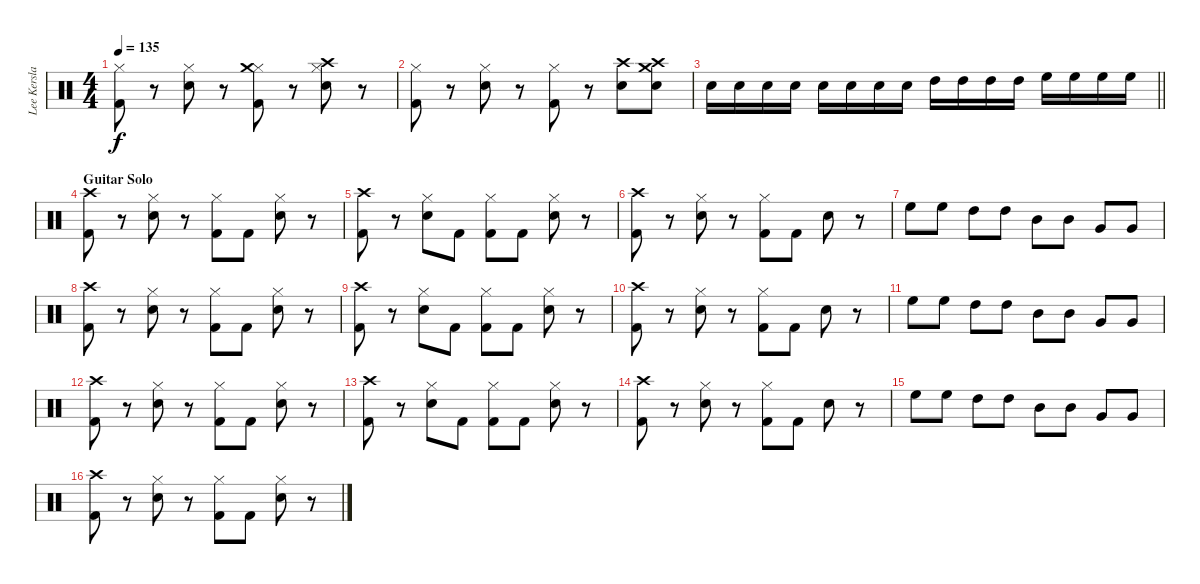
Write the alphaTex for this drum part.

\track ("Lee Kerslake" "Lee Kersla") {instrument percussion}
\staff {score}
\articulation defaults
\ts (4 4)
\tempo 135
\clef neutral
\ks c
("Hi-Hat (closed)" "Kick (hit) 2").8{dy f} r.8 ("Hi-Hat (closed)" "Snare (hit) 2").8 r.8 ("Hi-Hat (closed)" "Kick (hit) 2" "Crash medium (hit)").8 r.8 ("Hi-Hat (closed)" "Snare (hit) 2" "Crash high (hit)").8 r.8 |
("Hi-Hat (closed)" "Kick (hit) 2").8 r.8 ("Hi-Hat (closed)" "Snare (hit) 2").8 r.8 ("Hi-Hat (closed)" "Kick (hit) 2").8 r.8 ("Snare (hit) 2" "Crash high (hit)").8 ("Snare (hit) 2" "Crash medium (hit)" "Crash high (hit)").8 |
\barLineRight lightlight "Electric Snare (hit)".16 "Electric Snare (hit)".16 "Electric Snare (hit)".16 "Electric Snare (hit)".16 "Snare (hit) 2".16 "Snare (hit) 2".16 "Snare (hit) 2".16 "Snare (hit) 2".16 "High Tom (hit)".16 "High Tom (hit)".16 "High Tom (hit)".16 "High Tom (hit)".16 "High Floor Tom (hit)".16 "High Floor Tom (hit)".16 "High Floor Tom (hit)".16 "High Floor Tom (hit)".16
|
\section ("" "Guitar Solo")
("Crash high (hit)" "Kick (hit) 2").8 r.8 ("Hi-Hat (closed)" "Snare (hit) 2").8 r.8 ("Hi-Hat (closed)" "Kick (hit) 2").8 "Kick (hit) 2".8 ("Hi-Hat (closed)" "Snare (hit) 2").8 r.8 |
("Kick (hit) 2" "Crash high (hit)").8 r.8 ("Hi-Hat (closed)" "Snare (hit) 2").8 "Kick (hit) 2".8 ("Hi-Hat (closed)" "Kick (hit) 2").8 "Kick (hit) 2".8 ("Hi-Hat (closed)" "Snare (hit) 2").8 r.8 |
("Kick (hit) 2" "Crash high (hit)").8 r.8 ("Hi-Hat (closed)" "Snare (hit) 2").8 r.8 ("Hi-Hat (closed)" "Kick (hit) 2").8 "Kick (hit) 2".8 "Snare (hit) 2".8 r.8 |
"High Floor Tom (hit)".8 "High Floor Tom (hit)".8 "High Tom (hit)".8 "High Tom (hit)".8 "Mid Tom (hit)".8 "Mid Tom (hit)".8 "Very Low Tom (hit)".8 "Very Low Tom (hit)".8 |
("Crash high (hit)" "Kick (hit) 2").8 r.8 ("Hi-Hat (closed)" "Snare (hit) 2").8 r.8 ("Hi-Hat (closed)" "Kick (hit) 2").8 "Kick (hit) 2".8 ("Hi-Hat (closed)" "Snare (hit) 2").8 r.8 |
("Kick (hit) 2" "Crash high (hit)").8 r.8 ("Hi-Hat (closed)" "Snare (hit) 2").8 "Kick (hit) 2".8 ("Hi-Hat (closed)" "Kick (hit) 2").8 "Kick (hit) 2".8 ("Hi-Hat (closed)" "Snare (hit) 2").8 r.8 |
("Kick (hit) 2" "Crash high (hit)").8 r.8 ("Hi-Hat (closed)" "Snare (hit) 2").8 r.8 ("Hi-Hat (closed)" "Kick (hit) 2").8 "Kick (hit) 2".8 "Snare (hit) 2".8 r.8 |
"High Floor Tom (hit)".8 "High Floor Tom (hit)".8 "High Tom (hit)".8 "High Tom (hit)".8 "Mid Tom (hit)".8 "Mid Tom (hit)".8 "Very Low Tom (hit)".8 "Very Low Tom (hit)".8 |
("Crash high (hit)" "Kick (hit) 2").8 r.8 ("Hi-Hat (closed)" "Snare (hit) 2").8 r.8 ("Hi-Hat (closed)" "Kick (hit) 2").8 "Kick (hit) 2".8 ("Hi-Hat (closed)" "Snare (hit) 2").8 r.8 |
("Kick (hit) 2" "Crash high (hit)").8 r.8 ("Hi-Hat (closed)" "Snare (hit) 2").8 "Kick (hit) 2".8 ("Hi-Hat (closed)" "Kick (hit) 2").8 "Kick (hit) 2".8 ("Hi-Hat (closed)" "Snare (hit) 2").8 r.8 |
("Kick (hit) 2" "Crash high (hit)").8 r.8 ("Hi-Hat (closed)" "Snare (hit) 2").8 r.8 ("Hi-Hat (closed)" "Kick (hit) 2").8 "Kick (hit) 2".8 "Snare (hit) 2".8 r.8 |
"High Floor Tom (hit)".8 "High Floor Tom (hit)".8 "High Tom (hit)".8 "High Tom (hit)".8 "Mid Tom (hit)".8 "Mid Tom (hit)".8 "Very Low Tom (hit)".8 "Very Low Tom (hit)".8 |
("Crash high (hit)" "Kick (hit) 2").8 r.8 ("Hi-Hat (closed)" "Snare (hit) 2").8 r.8 ("Hi-Hat (closed)" "Kick (hit) 2").8 "Kick (hit) 2".8 ("Hi-Hat (closed)" "Snare (hit) 2").8 r.8
